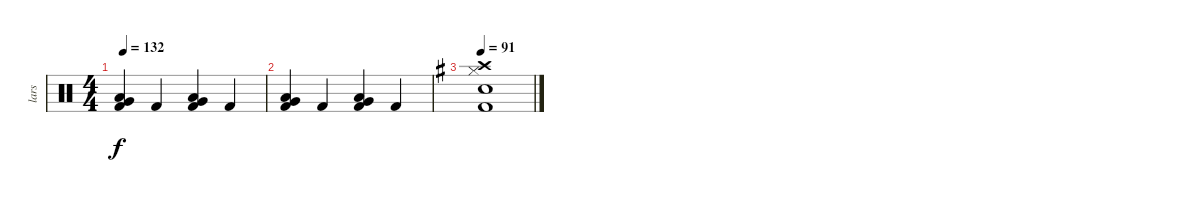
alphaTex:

\track ("lars" "lars") {instrument percussion}
\staff {score}
\articulation defaults
\ts (4 4)
\tempo 132
\clef neutral
\ks c
("Very Low Tom (hit)" "Low Floor Tom (hit)" "Kick (hit) 2").4{dy f} "Kick (hit) 2".4 ("Very Low Tom (hit)" "Low Floor Tom (hit)" "Kick (hit) 2").4 "Kick (hit) 2".4 |
("Very Low Tom (hit)" "Low Floor Tom (hit)" "Kick (hit) 2").4 "Kick (hit) 2".4 ("Very Low Tom (hit)" "Low Floor Tom (hit)" "Kick (hit) 2").4 "Kick (hit) 2".4 |
\tempo (91 0.125)
\ks g
("Kick (hit) 2" "Snare (hit) 2" "Hi-Hat (closed)" "Crash high (hit)").1
